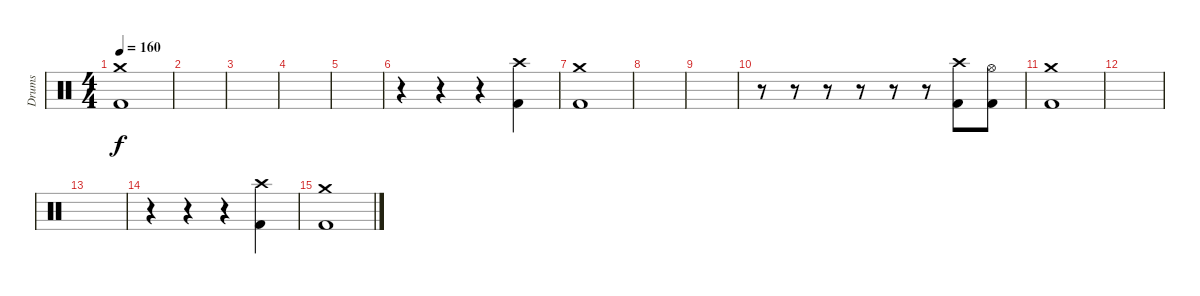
\track ("Drums" "Drums") {instrument percussion}
\staff {score}
\articulation defaults
\ts (4 4)
\tempo 160
\clef neutral
\ks c
("Crash medium (hit)" "Kick (hit) 2").1{dy f} |
|
|
|
|
r.4 r.4 r.4 ("Crash high (hit)" "Kick (hit) 2").4 |
("Crash medium (hit)" "Kick (hit) 2").1 |
|
|
r.8 r.8 r.8 r.8 r.8 r.8 ("Crash high (hit)" "Kick (hit) 2").8 ("Hi-Hat (open)" "Kick (hit) 2").8 |
("Crash medium (hit)" "Kick (hit) 2").1 |
|
|
r.4 r.4 r.4 ("Crash high (hit)" "Kick (hit) 2").4 |
("Crash medium (hit)" "Kick (hit) 2").1
